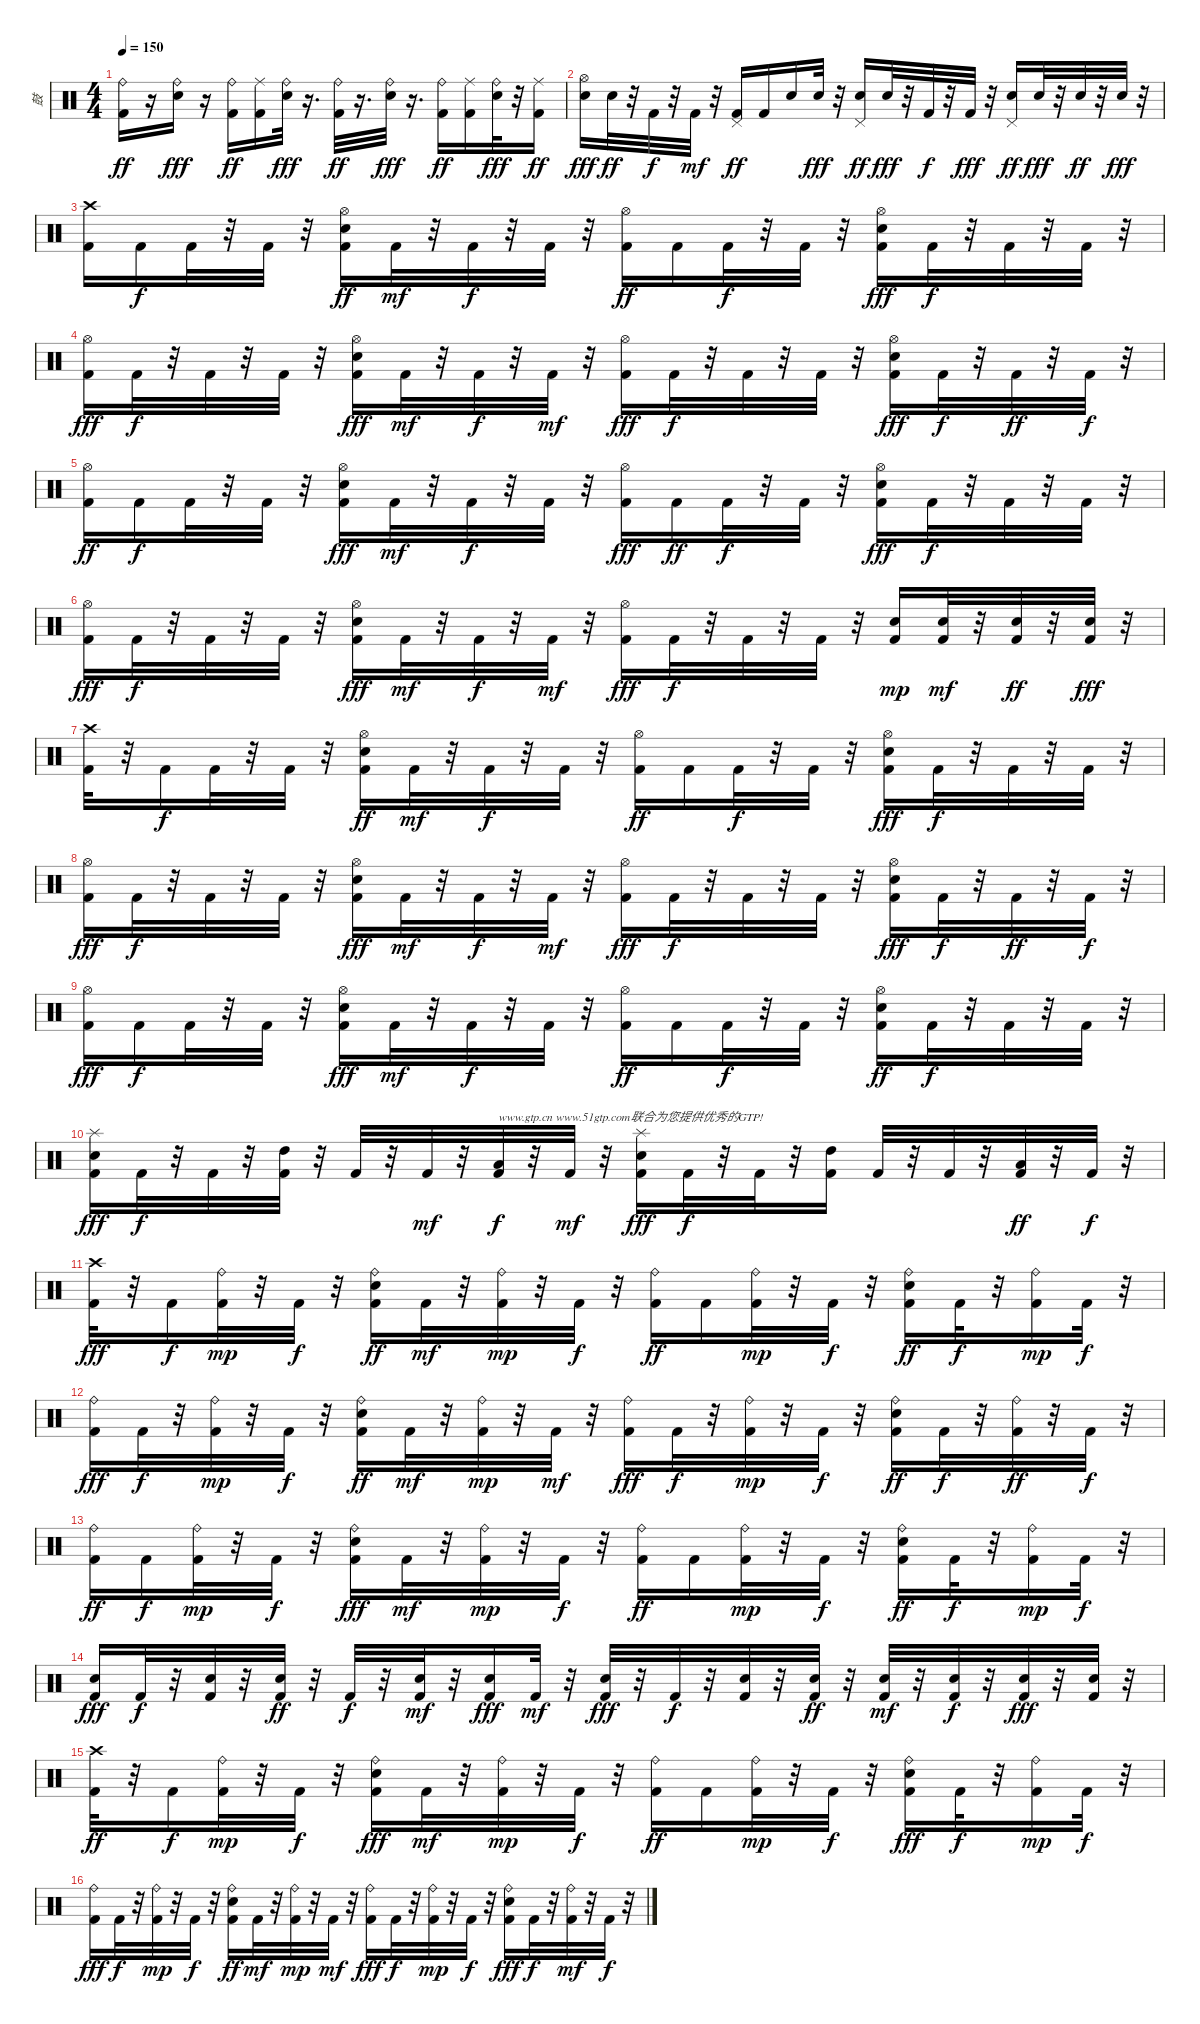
\track ("鼓" "鼓") {instrument percussion}
\staff {score}
\articulation defaults
\ts (4 4)
\tempo 150
\clef neutral
\ks c
("Ride (bell)" "Kick (hit) 2").16{dy ff} r.16 ("Electric Snare (hit)" "Ride (bell)").16{dy fff} r.16 ("Ride (bell)" "Kick (hit) 2").16{dy ff} ("Ride (middle)" "Kick (hit) 2").16 ("Electric Snare (hit)" "Ride (bell)").32{dy fff} r.16{d} ("Ride (bell)" "Kick (hit) 2").32{dy ff} r.16{d} ("Electric Snare (hit)" "Ride (bell)").32{dy fff} r.16{d} ("Ride (bell)" "Kick (hit) 2").16{dy ff} ("Kick (hit) 2" "Ride (middle)").16 ("Ride (bell)" "Electric Snare (hit)").32{dy fff} r.32 ("Kick (hit) 2" "Ride (middle)").16{dy ff} |
("Electric Snare (hit)" "Hi-Hat (open)").16{dy fff} "Electric Snare (hit)".32{dy ff} r.32 "Kick (hit) 2".32{dy f} r.32 "Kick (hit) 2".32{dy mf} r.32 ("Kick (hit) 2" "Pedal Hi-Hat (hit)").16{dy ff} "Kick (hit) 2".16 "Electric Snare (hit)".16 "Electric Snare (hit)".32{dy fff} r.32 ("Electric Snare (hit)" "Pedal Hi-Hat (hit)").16{dy ff} "Electric Snare (hit)".32{dy fff} r.32 "Kick (hit) 2".32{dy f} r.32 "Kick (hit) 2".32{dy fff} r.32 ("Electric Snare (hit)" "Pedal Hi-Hat (hit)").16{dy ff} "Electric Snare (hit)".32{dy fff} r.32 "Electric Snare (hit)".32{dy ff} r.32 "Electric Snare (hit)".32{dy fff} r.32 |
("Kick (hit) 2" "Crash high (hit)").16 "Kick (hit) 2".16{dy f} "Kick (hit) 2".32 r.32 "Kick (hit) 2".32 r.32 ("Electric Snare (hit)" "Hi-Hat (open)" "Kick (hit) 2").16{dy ff} "Kick (hit) 2".32{dy mf} r.32 "Kick (hit) 2".32{dy f} r.32 "Kick (hit) 2".32 r.32 ("Hi-Hat (open)" "Kick (hit) 2").16{dy ff} "Kick (hit) 2".16 "Kick (hit) 2".32{dy f} r.32 "Kick (hit) 2".32 r.32 ("Kick (hit) 2" "Electric Snare (hit)" "Hi-Hat (open)").16{dy fff} "Kick (hit) 2".32{dy f} r.32 "Kick (hit) 2".32 r.32 "Kick (hit) 2".32 r.32 |
("Hi-Hat (open)" "Kick (hit) 2").16{dy fff} "Kick (hit) 2".32{dy f} r.32 "Kick (hit) 2".32 r.32 "Kick (hit) 2".32 r.32 ("Kick (hit) 2" "Hi-Hat (open)" "Electric Snare (hit)").16{dy fff} "Kick (hit) 2".32{dy mf} r.32 "Kick (hit) 2".32{dy f} r.32 "Kick (hit) 2".32{dy mf} r.32 ("Hi-Hat (open)" "Kick (hit) 2").16{dy fff} "Kick (hit) 2".32{dy f} r.32 "Kick (hit) 2".32 r.32 "Kick (hit) 2".32 r.32 ("Electric Snare (hit)" "Hi-Hat (open)" "Kick (hit) 2").16{dy fff} "Kick (hit) 2".32{dy f} r.32 "Kick (hit) 2".32{dy ff} r.32 "Kick (hit) 2".32{dy f} r.32 |
("Hi-Hat (open)" "Kick (hit) 2").16{dy ff} "Kick (hit) 2".16{dy f} "Kick (hit) 2".32 r.32 "Kick (hit) 2".32 r.32 ("Kick (hit) 2" "Hi-Hat (open)" "Electric Snare (hit)").16{dy fff} "Kick (hit) 2".32{dy mf} r.32 "Kick (hit) 2".32{dy f} r.32 "Kick (hit) 2".32 r.32 ("Kick (hit) 2" "Hi-Hat (open)").16{dy fff} "Kick (hit) 2".16{dy ff} "Kick (hit) 2".32{dy f} r.32 "Kick (hit) 2".32 r.32 ("Kick (hit) 2" "Hi-Hat (open)" "Electric Snare (hit)").16{dy fff} "Kick (hit) 2".32{dy f} r.32 "Kick (hit) 2".32 r.32 "Kick (hit) 2".32 r.32 |
("Kick (hit) 2" "Hi-Hat (open)").16{dy fff} "Kick (hit) 2".32{dy f} r.32 "Kick (hit) 2".32 r.32 "Kick (hit) 2".32 r.32 ("Electric Snare (hit)" "Kick (hit) 2" "Hi-Hat (open)").16{dy fff} "Kick (hit) 2".32{dy mf} r.32 "Kick (hit) 2".32{dy f} r.32 "Kick (hit) 2".32{dy mf} r.32 ("Hi-Hat (open)" "Kick (hit) 2").16{dy fff} "Kick (hit) 2".32{dy f} r.32 "Kick (hit) 2".32 r.32 "Kick (hit) 2".32 r.32 ("Electric Snare (hit)" "Kick (hit) 2").16{dy mp} ("Electric Snare (hit)" "Kick (hit) 2").32{dy mf} r.32 ("Kick (hit) 2" "Electric Snare (hit)").32{dy ff} r.32 ("Electric Snare (hit)" "Kick (hit) 2").32{dy fff} r.32 |
("Kick (hit) 2" "Crash high (hit)").32 r.32 "Kick (hit) 2".16{dy f} "Kick (hit) 2".32 r.32 "Kick (hit) 2".32 r.32 ("Electric Snare (hit)" "Hi-Hat (open)" "Kick (hit) 2").16{dy ff} "Kick (hit) 2".32{dy mf} r.32 "Kick (hit) 2".32{dy f} r.32 "Kick (hit) 2".32 r.32 ("Hi-Hat (open)" "Kick (hit) 2").16{dy ff} "Kick (hit) 2".16 "Kick (hit) 2".32{dy f} r.32 "Kick (hit) 2".32 r.32 ("Hi-Hat (open)" "Kick (hit) 2" "Electric Snare (hit)").16{dy fff} "Kick (hit) 2".32{dy f} r.32 "Kick (hit) 2".32 r.32 "Kick (hit) 2".32 r.32 |
("Hi-Hat (open)" "Kick (hit) 2").16{dy fff} "Kick (hit) 2".32{dy f} r.32 "Kick (hit) 2".32 r.32 "Kick (hit) 2".32 r.32 ("Kick (hit) 2" "Hi-Hat (open)" "Electric Snare (hit)").16{dy fff} "Kick (hit) 2".32{dy mf} r.32 "Kick (hit) 2".32{dy f} r.32 "Kick (hit) 2".32{dy mf} r.32 ("Kick (hit) 2" "Hi-Hat (open)").16{dy fff} "Kick (hit) 2".32{dy f} r.32 "Kick (hit) 2".32 r.32 "Kick (hit) 2".32 r.32 ("Hi-Hat (open)" "Kick (hit) 2" "Electric Snare (hit)").16{dy fff} "Kick (hit) 2".32{dy f} r.32 "Kick (hit) 2".32{dy ff} r.32 "Kick (hit) 2".32{dy f} r.32 |
("Kick (hit) 2" "Hi-Hat (open)").16{dy fff} "Kick (hit) 2".16{dy f} "Kick (hit) 2".32 r.32 "Kick (hit) 2".32 r.32 ("Hi-Hat (open)" "Kick (hit) 2" "Electric Snare (hit)").16{dy fff} "Kick (hit) 2".32{dy mf} r.32 "Kick (hit) 2".32{dy f} r.32 "Kick (hit) 2".32 r.32 ("Hi-Hat (open)" "Kick (hit) 2").16{dy ff} "Kick (hit) 2".16 "Kick (hit) 2".32{dy f} r.32 "Kick (hit) 2".32 r.32 ("Hi-Hat (open)" "Electric Snare (hit)" "Kick (hit) 2").16{dy ff} "Kick (hit) 2".32{dy f} r.32 "Kick (hit) 2".32 r.32 "Kick (hit) 2".32 r.32 |
("Splash (hit)" "Electric Snare (hit)" "Kick (hit) 2").16{dy fff} "Kick (hit) 2".32{dy f} r.32 "Kick (hit) 2".32 r.32 ("High Tom (hit)" "Kick (hit) 2").32 r.32 "Kick (hit) 2".32 r.32 "Kick (hit) 2".32{dy mf} r.32 ("Kick (hit) 2" "Low Tom (hit)").32{txt "www.gtp.cn www.51gtp.com联合为您提供优秀的GTP!" dy f} r.32 "Kick (hit) 2".32{dy mf} r.32 ("Electric Snare (hit)" "Splash (hit)" "Kick (hit) 2").16{dy fff} "Kick (hit) 2".32{dy f} r.32 "Kick (hit) 2".32 r.32 ("Kick (hit) 2" "High Tom (hit)").16 "Kick (hit) 2".32 r.32 "Kick (hit) 2".32 r.32 ("Low Tom (hit)" "Kick (hit) 2").32{dy ff} r.32 "Kick (hit) 2".32{dy f} r.32 |
("Kick (hit) 2" "Crash high (hit)").32{dy fff} r.32 "Kick (hit) 2".16{dy f} ("Ride (bell)" "Kick (hit) 2").32{dy mp} r.32 "Kick (hit) 2".32{dy f} r.32 ("Ride (bell)" "Electric Snare (hit)" "Kick (hit) 2").16{dy ff} "Kick (hit) 2".32{dy mf} r.32 ("Ride (bell)" "Kick (hit) 2").32{dy mp} r.32 "Kick (hit) 2".32{dy f} r.32 ("Kick (hit) 2" "Ride (bell)").16{dy ff} "Kick (hit) 2".16 ("Kick (hit) 2" "Ride (bell)").32{dy mp} r.32 "Kick (hit) 2".32{dy f} r.32 ("Electric Snare (hit)" "Ride (bell)" "Kick (hit) 2").16{dy ff} "Kick (hit) 2".32{dy f} r.32 ("Ride (bell)" "Kick (hit) 2").16{dy mp} "Kick (hit) 2".32{dy f} r.32 |
("Ride (bell)" "Kick (hit) 2").16{dy fff} "Kick (hit) 2".32{dy f} r.32 ("Kick (hit) 2" "Ride (bell)").32{dy mp} r.32 "Kick (hit) 2".32{dy f} r.32 ("Electric Snare (hit)" "Kick (hit) 2" "Ride (bell)").16{dy ff} "Kick (hit) 2".32{dy mf} r.32 ("Ride (bell)" "Kick (hit) 2").32{dy mp} r.32 "Kick (hit) 2".32{dy mf} r.32 ("Ride (bell)" "Kick (hit) 2").16{dy fff} "Kick (hit) 2".32{dy f} r.32 ("Ride (bell)" "Kick (hit) 2").32{dy mp} r.32 "Kick (hit) 2".32{dy f} r.32 ("Electric Snare (hit)" "Kick (hit) 2" "Ride (bell)").16{dy ff} "Kick (hit) 2".32{dy f} r.32 ("Ride (bell)" "Kick (hit) 2").32{dy ff} r.32 "Kick (hit) 2".32{dy f} r.32 |
("Ride (bell)" "Kick (hit) 2").16{dy ff} "Kick (hit) 2".16{dy f} ("Ride (bell)" "Kick (hit) 2").32{dy mp} r.32 "Kick (hit) 2".32{dy f} r.32 ("Electric Snare (hit)" "Kick (hit) 2" "Ride (bell)").16{dy fff} "Kick (hit) 2".32{dy mf} r.32 ("Ride (bell)" "Kick (hit) 2").32{dy mp} r.32 "Kick (hit) 2".32{dy f} r.32 ("Ride (bell)" "Kick (hit) 2").16{dy ff} "Kick (hit) 2".16 ("Ride (bell)" "Kick (hit) 2").32{dy mp} r.32 "Kick (hit) 2".32{dy f} r.32 ("Electric Snare (hit)" "Ride (bell)" "Kick (hit) 2").16{dy ff} "Kick (hit) 2".32{dy f} r.32 ("Ride (bell)" "Kick (hit) 2").16{dy mp} "Kick (hit) 2".32{dy f} r.32 |
("Kick (hit) 2" "Electric Snare (hit)").16{dy fff} "Kick (hit) 2".32{dy f} r.32 ("Kick (hit) 2" "Electric Snare (hit)").32 r.32 ("Electric Snare (hit)" "Kick (hit) 2").32{dy ff} r.32 "Kick (hit) 2".32{dy f} r.32 ("Kick (hit) 2" "Electric Snare (hit)").32{dy mf} r.32 ("Electric Snare (hit)" "Kick (hit) 2").16{dy fff} "Kick (hit) 2".32{dy mf} r.32 ("Electric Snare (hit)" "Kick (hit) 2").32{dy fff} r.32 "Kick (hit) 2".32{dy f} r.32 ("Kick (hit) 2" "Electric Snare (hit)").32 r.32 ("Kick (hit) 2" "Electric Snare (hit)").32{dy ff} r.32 ("Electric Snare (hit)" "Kick (hit) 2").32{dy mf} r.32 ("Electric Snare (hit)" "Kick (hit) 2").32{dy f} r.32 ("Kick (hit) 2" "Electric Snare (hit)").32{dy fff} r.32 ("Kick (hit) 2" "Electric Snare (hit)").32 r.32 |
("Crash high (hit)" "Kick (hit) 2").32{dy ff} r.32 "Kick (hit) 2".16{dy f} ("Kick (hit) 2" "Ride (bell)").32{dy mp} r.32 "Kick (hit) 2".32{dy f} r.32 ("Kick (hit) 2" "Ride (bell)" "Electric Snare (hit)").16{dy fff} "Kick (hit) 2".32{dy mf} r.32 ("Ride (bell)" "Kick (hit) 2").32{dy mp} r.32 "Kick (hit) 2".32{dy f} r.32 ("Ride (bell)" "Kick (hit) 2").16{dy ff} "Kick (hit) 2".16 ("Kick (hit) 2" "Ride (bell)").32{dy mp} r.32 "Kick (hit) 2".32{dy f} r.32 ("Ride (bell)" "Kick (hit) 2" "Electric Snare (hit)").16{dy fff} "Kick (hit) 2".32{dy f} r.32 ("Kick (hit) 2" "Ride (bell)").16{dy mp} "Kick (hit) 2".32{dy f} r.32 |
("Ride (bell)" "Kick (hit) 2").16{dy fff} "Kick (hit) 2".32{dy f} r.32 ("Ride (bell)" "Kick (hit) 2").32{dy mp} r.32 "Kick (hit) 2".32{dy f} r.32 ("Kick (hit) 2" "Electric Snare (hit)" "Ride (bell)").16{dy ff} "Kick (hit) 2".32{dy mf} r.32 ("Kick (hit) 2" "Ride (bell)").32{dy mp} r.32 "Kick (hit) 2".32{dy mf} r.32 ("Kick (hit) 2" "Ride (bell)").16{dy fff} "Kick (hit) 2".32{dy f} r.32 ("Kick (hit) 2" "Ride (bell)").32{dy mp} r.32 "Kick (hit) 2".32{dy f} r.32 ("Kick (hit) 2" "Ride (bell)" "Electric Snare (hit)").16{dy fff} "Kick (hit) 2".32{dy f} r.32 ("Kick (hit) 2" "Ride (bell)").32{dy mf} r.32 "Kick (hit) 2".32{dy f} r.32
